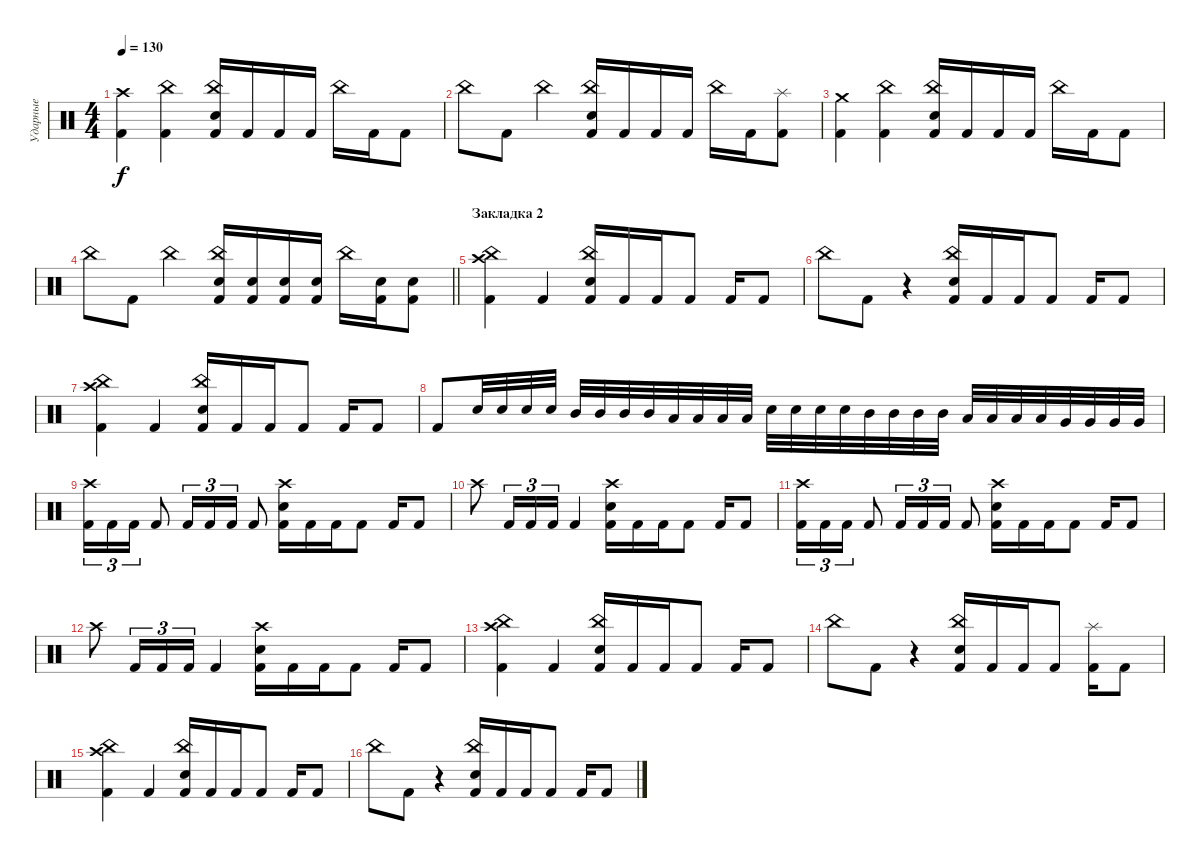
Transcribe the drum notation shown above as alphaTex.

\track ("Ударные" "Ударные") {instrument percussion}
\staff
\articulation defaults
\ts (4 4)
\tempo 130
\clef neutral
\ks c
("Crash high (hit)" "Kick (hit) 2").4{dy f} ("China (hit)" "Kick (hit) 2").4 ("China (hit)" "Electric Snare (hit)" "Kick (hit) 2").16 "Kick (hit) 2".16 "Kick (hit) 2".16 "Kick (hit) 2".16 "China (hit)".16 "Kick (hit) 2".16 "Kick (hit) 2".8 |
"China (hit)".8 "Kick (hit) 2".8 "China (hit)".4 ("China (hit)" "Electric Snare (hit)" "Kick (hit) 2").16 "Kick (hit) 2".16 "Kick (hit) 2".16 "Kick (hit) 2".16 "China (hit)".16 "Kick (hit) 2".16 ("Splash (hit)" "Kick (hit) 2").8 |
("Crash medium (hit)" "Kick (hit) 2").4 ("China (hit)" "Kick (hit) 2").4 ("China (hit)" "Electric Snare (hit)" "Kick (hit) 2").16 "Kick (hit) 2".16 "Kick (hit) 2".16 "Kick (hit) 2".16 "China (hit)".16 "Kick (hit) 2".16 "Kick (hit) 2".8 |
\barLineRight lightlight "China (hit)".8 "Kick (hit) 2".8 "China (hit)".4
("China (hit)" "Electric Snare (hit)" "Kick (hit) 2").16 ("Electric Snare (hit)" "Kick (hit) 2").16 ("Electric Snare (hit)" "Kick (hit) 2").16 ("Electric Snare (hit)" "Kick (hit) 2").16 "China (hit)".16 ("Electric Snare (hit)" "Kick (hit) 2").16 ("Electric Snare (hit)" "Kick (hit) 2").8 |
\section ("" "Закладка 2")
("Crash high (hit)" "China (hit)" "Kick (hit) 2").4 "Kick (hit) 2".4 ("China (hit)" "Electric Snare (hit)" "Kick (hit) 2").16 "Kick (hit) 2".16 "Kick (hit) 2".16 "Kick (hit) 2".8 "Kick (hit) 2".16 "Kick (hit) 2".8 |
"China (hit)".8 "Kick (hit) 2".8 r.4 ("China (hit)" "Electric Snare (hit)" "Kick (hit) 2").16 "Kick (hit) 2".16 "Kick (hit) 2".16 "Kick (hit) 2".8 "Kick (hit) 2".16 "Kick (hit) 2".8 |
("Crash high (hit)" "China (hit)" "Kick (hit) 2").4 "Kick (hit) 2".4 ("China (hit)" "Electric Snare (hit)" "Kick (hit) 2").16 "Kick (hit) 2".16 "Kick (hit) 2".16 "Kick (hit) 2".8 "Kick (hit) 2".16 "Kick (hit) 2".8 |
"Kick (hit) 2".8 "Electric Snare (hit)".32 "Electric Snare (hit)".32 "Electric Snare (hit)".32 "Electric Snare (hit)".32 "Mid Tom (hit)".32 "Mid Tom (hit)".32 "Mid Tom (hit)".32 "Mid Tom (hit)".32 "Low Tom (hit)".32 "Low Tom (hit)".32 "Low Tom (hit)".32 "Low Tom (hit)".32 "Electric Snare (hit)".32 "Electric Snare (hit)".32 "Electric Snare (hit)".32 "Electric Snare (hit)".32 "Mid Tom (hit)".32 "Mid Tom (hit)".32 "Mid Tom (hit)".32 "Mid Tom (hit)".32 "Low Tom (hit)".32 "Low Tom (hit)".32 "Low Tom (hit)".32 "Low Tom (hit)".32 "Very Low Tom (hit)".32 "Very Low Tom (hit)".32 "Very Low Tom (hit)".32 "Very Low Tom (hit)".32 |
("Crash high (hit)" "Kick (hit) 2").16{tu (3 2)} "Kick (hit) 2".16{tu (3 2)} "Kick (hit) 2".16{tu (3 2)} "Kick (hit) 2".8 "Kick (hit) 2".16{tu (3 2)} "Kick (hit) 2".16{tu (3 2)} "Kick (hit) 2".16{tu (3 2)} "Kick (hit) 2".8 ("Crash high (hit)" "Electric Snare (hit)" "Kick (hit) 2").16 "Kick (hit) 2".16 "Kick (hit) 2".16 "Kick (hit) 2".8 "Kick (hit) 2".16 "Kick (hit) 2".8 |
"Crash high (hit)".8 "Kick (hit) 2".16{tu (3 2)} "Kick (hit) 2".16{tu (3 2)} "Kick (hit) 2".16{tu (3 2)} "Kick (hit) 2".4 ("Crash high (hit)" "Electric Snare (hit)" "Kick (hit) 2").16 "Kick (hit) 2".16 "Kick (hit) 2".16 "Kick (hit) 2".8 "Kick (hit) 2".16 "Kick (hit) 2".8 |
("Crash high (hit)" "Kick (hit) 2").16{tu (3 2)} "Kick (hit) 2".16{tu (3 2)} "Kick (hit) 2".16{tu (3 2)} "Kick (hit) 2".8 "Kick (hit) 2".16{tu (3 2)} "Kick (hit) 2".16{tu (3 2)} "Kick (hit) 2".16{tu (3 2)} "Kick (hit) 2".8 ("Crash high (hit)" "Electric Snare (hit)" "Kick (hit) 2").16 "Kick (hit) 2".16 "Kick (hit) 2".16 "Kick (hit) 2".8 "Kick (hit) 2".16 "Kick (hit) 2".8 |
"Crash high (hit)".8 "Kick (hit) 2".16{tu (3 2)} "Kick (hit) 2".16{tu (3 2)} "Kick (hit) 2".16{tu (3 2)} "Kick (hit) 2".4 ("Crash high (hit)" "Electric Snare (hit)" "Kick (hit) 2").16 "Kick (hit) 2".16 "Kick (hit) 2".16 "Kick (hit) 2".8 "Kick (hit) 2".16 "Kick (hit) 2".8 |
("Crash high (hit)" "China (hit)" "Kick (hit) 2").4 "Kick (hit) 2".4 ("China (hit)" "Electric Snare (hit)" "Kick (hit) 2").16 "Kick (hit) 2".16 "Kick (hit) 2".16 "Kick (hit) 2".8 "Kick (hit) 2".16 "Kick (hit) 2".8 |
"China (hit)".8 "Kick (hit) 2".8 r.4 ("China (hit)" "Electric Snare (hit)" "Kick (hit) 2").16 "Kick (hit) 2".16 "Kick (hit) 2".16 "Kick (hit) 2".8 ("Splash (hit)" "Kick (hit) 2").16 "Kick (hit) 2".8 |
("Crash high (hit)" "China (hit)" "Kick (hit) 2").4 "Kick (hit) 2".4 ("China (hit)" "Electric Snare (hit)" "Kick (hit) 2").16 "Kick (hit) 2".16 "Kick (hit) 2".16 "Kick (hit) 2".8 "Kick (hit) 2".16 "Kick (hit) 2".8 |
"China (hit)".8 "Kick (hit) 2".8 r.4 ("China (hit)" "Electric Snare (hit)" "Kick (hit) 2").16 "Kick (hit) 2".16 "Kick (hit) 2".16 "Kick (hit) 2".8 "Kick (hit) 2".16 "Kick (hit) 2".8
